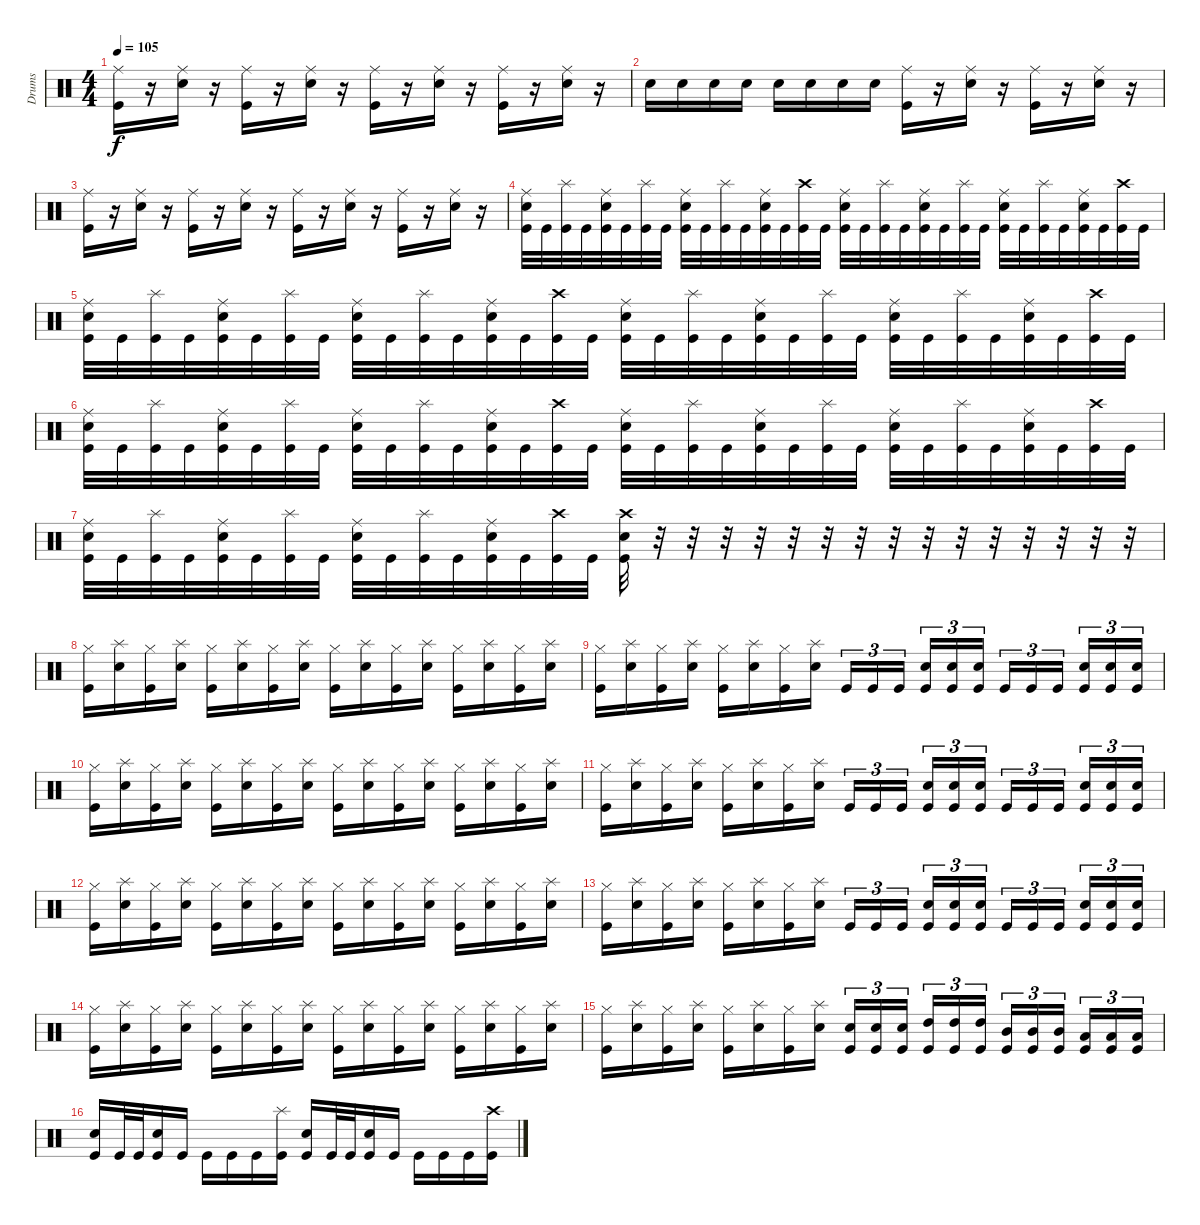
\track ("Drums" "Drums") {instrument percussion}
\staff {score}
\articulation defaults
\ts (4 4)
\tempo 105
\clef neutral
\ks c
("Ride (middle)" "Kick (hit)").16{dy f} r.16 ("Ride (middle)" "Snare (hit) 2").16 r.16 ("Ride (middle)" "Kick (hit)").16 r.16 ("Ride (middle)" "Snare (hit) 2").16 r.16 ("Ride (middle)" "Kick (hit)").16 r.16 ("Ride (middle)" "Snare (hit) 2").16 r.16 ("Ride (middle)" "Kick (hit)").16 r.16 ("Ride (middle)" "Snare (hit) 2").16 r.16 |
"Electric Snare (hit)".16 "Electric Snare (hit)".16 "Snare (hit) 2".16 "Snare (hit) 2".16 "Snare (hit) 2".16 "Snare (hit) 2".16 "Snare (hit) 2".16 "Electric Snare (hit)".16 ("Ride (middle)" "Kick (hit)").16 r.16 ("Ride (middle)" "Snare (hit) 2").16 r.16 ("Ride (middle)" "Kick (hit)").16 r.16 ("Ride (middle)" "Snare (hit) 2").16 r.16 |
("Ride (middle)" "Kick (hit)").16 r.16 ("Ride (middle)" "Snare (hit) 2").16 r.16 ("Ride (middle)" "Kick (hit)").16 r.16 ("Ride (middle)" "Snare (hit) 2").16 r.16 ("Ride (middle)" "Kick (hit)").16 r.16 ("Ride (middle)" "Snare (hit) 2").16 r.16 ("Ride (middle)" "Kick (hit)").16 r.16 ("Ride (middle)" "Snare (hit) 2").16 r.16 |
("Ride (middle)" "Snare (hit) 2" "Kick (hit)").32 "Kick (hit)".32 ("Splash (hit)" "Kick (hit)").32 "Kick (hit)".32 ("Ride (middle)" "Snare (hit) 2" "Kick (hit)").32 "Kick (hit)".32 ("Splash (hit)" "Kick (hit)").32 "Kick (hit)".32 ("Ride (middle)" "Snare (hit) 2" "Kick (hit)").32 "Kick (hit)".32 ("Splash (hit)" "Kick (hit)").32 "Kick (hit)".32 ("Ride (middle)" "Snare (hit) 2" "Kick (hit)").32 "Kick (hit)".32 ("Crash high (hit)" "Kick (hit)").32 "Kick (hit)".32 ("Ride (middle)" "Snare (hit) 2" "Kick (hit)").32 "Kick (hit)".32 ("Splash (hit)" "Kick (hit)").32 "Kick (hit)".32 ("Ride (middle)" "Snare (hit) 2" "Kick (hit)").32 "Kick (hit)".32 ("Splash (hit)" "Kick (hit)").32 "Kick (hit)".32 ("Ride (middle)" "Snare (hit) 2" "Kick (hit)").32 "Kick (hit)".32 ("Splash (hit)" "Kick (hit)").32 "Kick (hit)".32 ("Ride (middle)" "Snare (hit) 2" "Kick (hit)").32 "Kick (hit)".32 ("Crash high (hit)" "Kick (hit)").32 "Kick (hit)".32 |
("Ride (middle)" "Snare (hit) 2" "Kick (hit)").32 "Kick (hit)".32 ("Splash (hit)" "Kick (hit)").32 "Kick (hit)".32 ("Ride (middle)" "Snare (hit) 2" "Kick (hit)").32 "Kick (hit)".32 ("Splash (hit)" "Kick (hit)").32 "Kick (hit)".32 ("Ride (middle)" "Snare (hit) 2" "Kick (hit)").32 "Kick (hit)".32 ("Splash (hit)" "Kick (hit)").32 "Kick (hit)".32 ("Ride (middle)" "Snare (hit) 2" "Kick (hit)").32 "Kick (hit)".32 ("Crash high (hit)" "Kick (hit)").32 "Kick (hit)".32 ("Ride (middle)" "Snare (hit) 2" "Kick (hit)").32 "Kick (hit)".32 ("Splash (hit)" "Kick (hit)").32 "Kick (hit)".32 ("Ride (middle)" "Snare (hit) 2" "Kick (hit)").32 "Kick (hit)".32 ("Splash (hit)" "Kick (hit)").32 "Kick (hit)".32 ("Ride (middle)" "Snare (hit) 2" "Kick (hit)").32 "Kick (hit)".32 ("Splash (hit)" "Kick (hit)").32 "Kick (hit)".32 ("Ride (middle)" "Snare (hit) 2" "Kick (hit)").32 "Kick (hit)".32 ("Crash high (hit)" "Kick (hit)").32 "Kick (hit)".32 |
("Ride (middle)" "Snare (hit) 2" "Kick (hit)").32 "Kick (hit)".32 ("Splash (hit)" "Kick (hit)").32 "Kick (hit)".32 ("Ride (middle)" "Snare (hit) 2" "Kick (hit)").32 "Kick (hit)".32 ("Splash (hit)" "Kick (hit)").32 "Kick (hit)".32 ("Ride (middle)" "Snare (hit) 2" "Kick (hit)").32 "Kick (hit)".32 ("Splash (hit)" "Kick (hit)").32 "Kick (hit)".32 ("Ride (middle)" "Snare (hit) 2" "Kick (hit)").32 "Kick (hit)".32 ("Crash high (hit)" "Kick (hit)").32 "Kick (hit)".32 ("Ride (middle)" "Snare (hit) 2" "Kick (hit)").32 "Kick (hit)".32 ("Splash (hit)" "Kick (hit)").32 "Kick (hit)".32 ("Ride (middle)" "Snare (hit) 2" "Kick (hit)").32 "Kick (hit)".32 ("Splash (hit)" "Kick (hit)").32 "Kick (hit)".32 ("Ride (middle)" "Snare (hit) 2" "Kick (hit)").32 "Kick (hit)".32 ("Splash (hit)" "Kick (hit)").32 "Kick (hit)".32 ("Ride (middle)" "Snare (hit) 2" "Kick (hit)").32 "Kick (hit)".32 ("Crash high (hit)" "Kick (hit)").32 "Kick (hit)".32 |
("Ride (middle)" "Snare (hit) 2" "Kick (hit)").32 "Kick (hit)".32 ("Splash (hit)" "Kick (hit)").32 "Kick (hit)".32 ("Ride (middle)" "Snare (hit) 2" "Kick (hit)").32 "Kick (hit)".32 ("Splash (hit)" "Kick (hit)").32 "Kick (hit)".32 ("Ride (middle)" "Snare (hit) 2" "Kick (hit)").32 "Kick (hit)".32 ("Splash (hit)" "Kick (hit)").32 "Kick (hit)".32 ("Ride (middle)" "Snare (hit) 2" "Kick (hit)").32 "Kick (hit)".32 ("Crash high (hit)" "Kick (hit)").32 "Kick (hit)".32 ("Crash high (hit)" "Snare (hit) 2" "Kick (hit)").32 r.32 r.32 r.32 r.32 r.32 r.32 r.32 r.32 r.32 r.32 r.32 r.32 r.32 r.32 r.32 |
("Hi-Hat (closed)" "Kick (hit)").16 ("Splash (hit)" "Snare (hit) 2").16 ("Hi-Hat (closed)" "Kick (hit)").16 ("Splash (hit)" "Snare (hit) 2").16 ("Hi-Hat (closed)" "Kick (hit)").16 ("Splash (hit)" "Snare (hit) 2").16 ("Hi-Hat (closed)" "Kick (hit)").16 ("Splash (hit)" "Snare (hit) 2").16 ("Hi-Hat (closed)" "Kick (hit)").16 ("Splash (hit)" "Snare (hit) 2").16 ("Hi-Hat (closed)" "Kick (hit)").16 ("Splash (hit)" "Snare (hit) 2").16 ("Hi-Hat (closed)" "Kick (hit)").16 ("Splash (hit)" "Snare (hit) 2").16 ("Hi-Hat (closed)" "Kick (hit)").16 ("Splash (hit)" "Snare (hit) 2").16 |
("Hi-Hat (closed)" "Kick (hit)").16 ("Splash (hit)" "Snare (hit) 2").16 ("Hi-Hat (closed)" "Kick (hit)").16 ("Splash (hit)" "Snare (hit) 2").16 ("Hi-Hat (closed)" "Kick (hit)").16 ("Splash (hit)" "Snare (hit) 2").16 ("Hi-Hat (closed)" "Kick (hit)").16 ("Splash (hit)" "Snare (hit) 2").16 "Kick (hit)".16{tu (3 2)} "Kick (hit)".16{tu (3 2)} "Kick (hit)".16{tu (3 2)} ("Snare (hit) 2" "Kick (hit)").16{tu (3 2)} ("Snare (hit) 2" "Kick (hit)").16{tu (3 2)} ("Snare (hit) 2" "Kick (hit)").16{tu (3 2)} "Kick (hit)".16{tu (3 2)} "Kick (hit)".16{tu (3 2)} "Kick (hit)".16{tu (3 2)} ("Snare (hit) 2" "Kick (hit)").16{tu (3 2)} ("Snare (hit) 2" "Kick (hit)").16{tu (3 2)} ("Snare (hit) 2" "Kick (hit)").16{tu (3 2)} |
("Hi-Hat (closed)" "Kick (hit)").16 ("Splash (hit)" "Snare (hit) 2").16 ("Hi-Hat (closed)" "Kick (hit)").16 ("Splash (hit)" "Snare (hit) 2").16 ("Hi-Hat (closed)" "Kick (hit)").16 ("Splash (hit)" "Snare (hit) 2").16 ("Hi-Hat (closed)" "Kick (hit)").16 ("Splash (hit)" "Snare (hit) 2").16 ("Hi-Hat (closed)" "Kick (hit)").16 ("Splash (hit)" "Snare (hit) 2").16 ("Hi-Hat (closed)" "Kick (hit)").16 ("Splash (hit)" "Snare (hit) 2").16 ("Hi-Hat (closed)" "Kick (hit)").16 ("Splash (hit)" "Snare (hit) 2").16 ("Hi-Hat (closed)" "Kick (hit)").16 ("Splash (hit)" "Snare (hit) 2").16 |
("Hi-Hat (closed)" "Kick (hit)").16 ("Splash (hit)" "Snare (hit) 2").16 ("Hi-Hat (closed)" "Kick (hit)").16 ("Splash (hit)" "Snare (hit) 2").16 ("Hi-Hat (closed)" "Kick (hit)").16 ("Splash (hit)" "Snare (hit) 2").16 ("Hi-Hat (closed)" "Kick (hit)").16 ("Splash (hit)" "Snare (hit) 2").16 "Kick (hit)".16{tu (3 2)} "Kick (hit)".16{tu (3 2)} "Kick (hit)".16{tu (3 2)} ("Snare (hit) 2" "Kick (hit)").16{tu (3 2)} ("Snare (hit) 2" "Kick (hit)").16{tu (3 2)} ("Snare (hit) 2" "Kick (hit)").16{tu (3 2)} "Kick (hit)".16{tu (3 2)} "Kick (hit)".16{tu (3 2)} "Kick (hit)".16{tu (3 2)} ("Snare (hit) 2" "Kick (hit)").16{tu (3 2)} ("Snare (hit) 2" "Kick (hit)").16{tu (3 2)} ("Snare (hit) 2" "Kick (hit)").16{tu (3 2)} |
("Hi-Hat (closed)" "Kick (hit)").16 ("Splash (hit)" "Snare (hit) 2").16 ("Hi-Hat (closed)" "Kick (hit)").16 ("Splash (hit)" "Snare (hit) 2").16 ("Hi-Hat (closed)" "Kick (hit)").16 ("Splash (hit)" "Snare (hit) 2").16 ("Hi-Hat (closed)" "Kick (hit)").16 ("Splash (hit)" "Snare (hit) 2").16 ("Hi-Hat (closed)" "Kick (hit)").16 ("Splash (hit)" "Snare (hit) 2").16 ("Hi-Hat (closed)" "Kick (hit)").16 ("Splash (hit)" "Snare (hit) 2").16 ("Hi-Hat (closed)" "Kick (hit)").16 ("Splash (hit)" "Snare (hit) 2").16 ("Hi-Hat (closed)" "Kick (hit)").16 ("Splash (hit)" "Snare (hit) 2").16 |
("Hi-Hat (closed)" "Kick (hit)").16 ("Splash (hit)" "Snare (hit) 2").16 ("Hi-Hat (closed)" "Kick (hit)").16 ("Splash (hit)" "Snare (hit) 2").16 ("Hi-Hat (closed)" "Kick (hit)").16 ("Splash (hit)" "Snare (hit) 2").16 ("Hi-Hat (closed)" "Kick (hit)").16 ("Splash (hit)" "Snare (hit) 2").16 "Kick (hit)".16{tu (3 2)} "Kick (hit)".16{tu (3 2)} "Kick (hit)".16{tu (3 2)} ("Snare (hit) 2" "Kick (hit)").16{tu (3 2)} ("Snare (hit) 2" "Kick (hit)").16{tu (3 2)} ("Snare (hit) 2" "Kick (hit)").16{tu (3 2)} "Kick (hit)".16{tu (3 2)} "Kick (hit)".16{tu (3 2)} "Kick (hit)".16{tu (3 2)} ("Snare (hit) 2" "Kick (hit)").16{tu (3 2)} ("Snare (hit) 2" "Kick (hit)").16{tu (3 2)} ("Snare (hit) 2" "Kick (hit)").16{tu (3 2)} |
("Hi-Hat (closed)" "Kick (hit)").16 ("Splash (hit)" "Snare (hit) 2").16 ("Hi-Hat (closed)" "Kick (hit)").16 ("Splash (hit)" "Snare (hit) 2").16 ("Hi-Hat (closed)" "Kick (hit)").16 ("Splash (hit)" "Snare (hit) 2").16 ("Hi-Hat (closed)" "Kick (hit)").16 ("Splash (hit)" "Snare (hit) 2").16 ("Hi-Hat (closed)" "Kick (hit)").16 ("Splash (hit)" "Snare (hit) 2").16 ("Hi-Hat (closed)" "Kick (hit)").16 ("Splash (hit)" "Snare (hit) 2").16 ("Hi-Hat (closed)" "Kick (hit)").16 ("Splash (hit)" "Snare (hit) 2").16 ("Hi-Hat (closed)" "Kick (hit)").16 ("Splash (hit)" "Snare (hit) 2").16 |
("Hi-Hat (closed)" "Kick (hit)").16 ("Splash (hit)" "Snare (hit) 2").16 ("Hi-Hat (closed)" "Kick (hit)").16 ("Splash (hit)" "Snare (hit) 2").16 ("Hi-Hat (closed)" "Kick (hit)").16 ("Splash (hit)" "Snare (hit) 2").16 ("Hi-Hat (closed)" "Kick (hit)").16 ("Splash (hit)" "Snare (hit) 2").16 ("Snare (hit) 2" "Kick (hit)").16{tu (3 2)} ("Snare (hit) 2" "Kick (hit)").16{tu (3 2)} ("Snare (hit) 2" "Kick (hit)").16{tu (3 2)} ("High Tom (hit)" "Kick (hit)").16{tu (3 2)} ("High Tom (hit)" "Kick (hit)").16{tu (3 2)} ("High Tom (hit)" "Kick (hit)").16{tu (3 2)} ("Mid Tom (hit)" "Kick (hit)").16{tu (3 2)} ("Mid Tom (hit)" "Kick (hit)").16{tu (3 2)} ("Mid Tom (hit)" "Kick (hit)").16{tu (3 2)} ("Low Tom (hit)" "Kick (hit)").16{tu (3 2)} ("Low Tom (hit)" "Kick (hit)").16{tu (3 2)} ("Low Tom (hit)" "Kick (hit)").16{tu (3 2)} |
("Snare (hit) 2" "Kick (hit)").16 "Kick (hit)".32 "Kick (hit)".32 ("Snare (hit) 2" "Kick (hit)").16 "Kick (hit)".16 "Kick (hit)".16 "Kick (hit)".16 "Kick (hit)".16 ("Splash (hit)" "Kick (hit)").16 ("Snare (hit) 2" "Kick (hit)").16 "Kick (hit)".32 "Kick (hit)".32 ("Snare (hit) 2" "Kick (hit)").16 "Kick (hit)".16 "Kick (hit)".16 "Kick (hit)".16 "Kick (hit)".16 ("Crash high (hit)" "Kick (hit)").16
